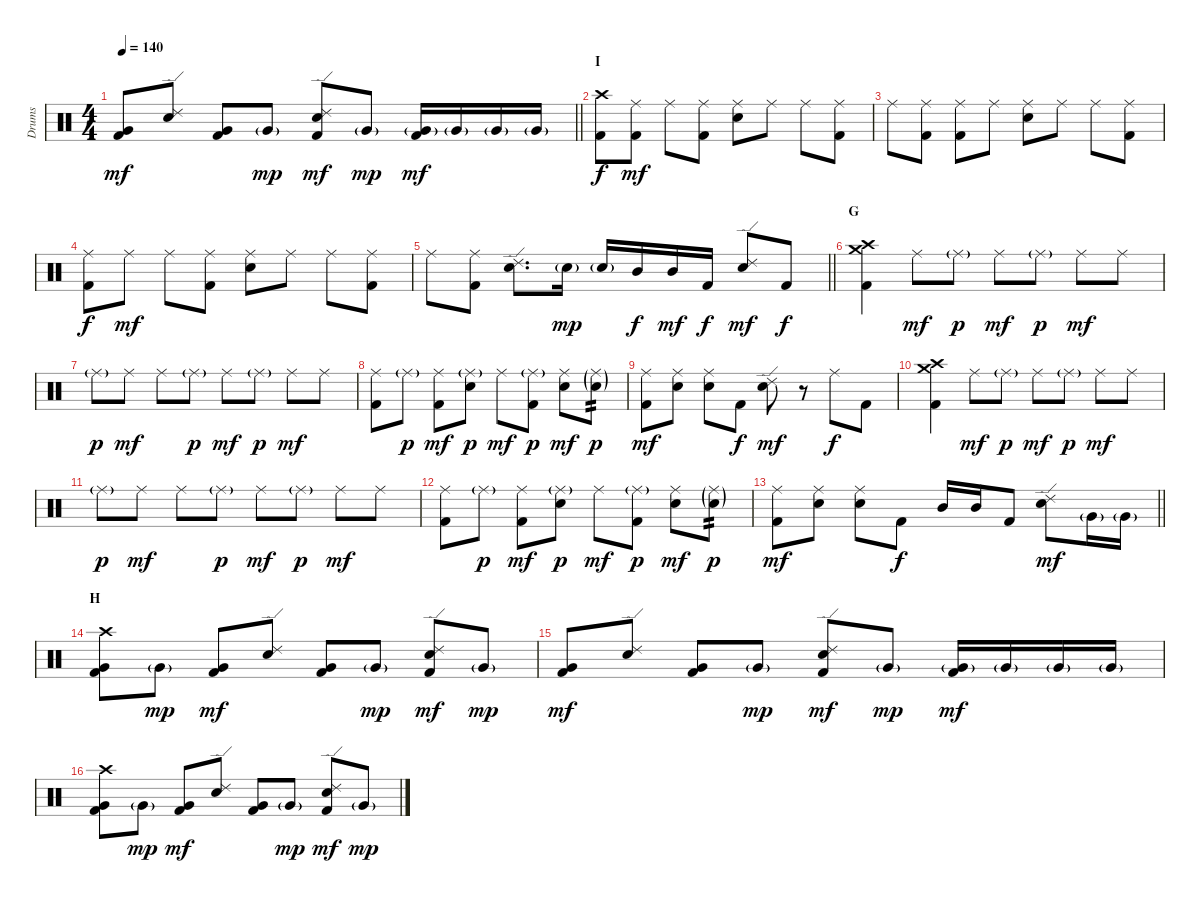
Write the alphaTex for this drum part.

\track ("Drums" "Drums") {instrument percussion}
\staff {score}
\articulation defaults
\ts (4 4)
\tempo 140
\clef neutral
\barLineRight lightlight
\ks c
("Very Low Tom (hit)" "Kick (hit) 2").8{dy mf} ("Ride (edge) 2" "Snare (hit) 2").8 ("Very Low Tom (hit)" "Kick (hit) 2").8 "Very Low Tom (hit)"{g}.8{dy mp} ("Ride (edge) 2" "Snare (hit) 2" "Kick (hit) 2").8{dy mf} "Very Low Tom (hit)"{g}.8{dy mp} ("Very Low Tom (hit)"{g} "Kick (hit) 2").16{dy mf} "Very Low Tom (hit)"{g}.16 "Very Low Tom (hit)"{g}.16 "Very Low Tom (hit)"{g}.16 |
\section ("" "I")
("Crash high (hit)" "Kick (hit) 2").8{dy f} ("Ride (middle)" "Kick (hit) 2").8{dy mf} "Ride (middle)".8 ("Ride (middle)" "Kick (hit) 2").8 ("Ride (middle)" "Snare (hit) 2").8 "Ride (middle)".8 "Ride (middle)".8 ("Ride (middle)" "Kick (hit) 2").8 |
"Ride (middle)".8 ("Ride (middle)" "Kick (hit) 2").8 ("Ride (middle)" "Kick (hit) 2").8 "Ride (middle)".8 ("Ride (middle)" "Snare (hit) 2").8 "Ride (middle)".8 "Ride (middle)".8 ("Ride (middle)" "Kick (hit) 2").8 |
("Ride (middle)" "Kick (hit) 2").8{dy f} "Ride (middle)".8{dy mf} "Ride (middle)".8 ("Ride (middle)" "Kick (hit) 2").8 ("Ride (middle)" "Snare (hit) 2").8 "Ride (middle)".8 "Ride (middle)".8 ("Ride (middle)" "Kick (hit) 2").8 |
\barLineRight lightlight "Ride (middle)".8
("Ride (middle)" "Kick (hit) 2").8 ("Ride (edge) 2" "Snare (hit) 2").8{d} "Snare (hit) 2"{g}.16{dy mp} "Snare (hit) 2"{g}.16 "Mid Tom (hit)".16{dy f} "Mid Tom (hit)".16{dy mf} "Kick (hit) 2".16{dy f} ("Ride (edge) 2" "Snare (hit) 2").8{dy mf} "Kick (hit) 2".8{dy f} |
\section ("" "G")
("Crash high (hit)" "Crash medium (hit)" "Kick (hit) 2").4 "Ride (middle)".8{dy mf} "Ride (middle)"{g}.8{dy p} "Ride (middle)".8{dy mf} "Ride (middle)"{g}.8{dy p} "Ride (middle)".8{dy mf} "Ride (middle)".8 |
"Ride (middle)"{g}.8{dy p} "Ride (middle)".8{dy mf} "Ride (middle)".8 "Ride (middle)"{g}.8{dy p} "Ride (middle)".8{dy mf} "Ride (middle)"{g}.8{dy p} "Ride (middle)".8{dy mf} "Ride (middle)".8 |
("Ride (middle)" "Kick (hit) 2").8 "Ride (middle)"{g}.8{dy p} ("Ride (middle)" "Kick (hit) 2").8{dy mf} ("Ride (middle)"{g} "Snare (hit) 2").8{dy p} "Ride (middle)".8{dy mf} ("Ride (middle)"{g} "Kick (hit) 2").8{dy p} ("Ride (middle)" "Snare (hit) 2").8{dy mf} ("Ride (middle)"{g} "Snare (hit) 2"{g}).8{tp 2 dy p} |
("Ride (middle)" "Kick (hit) 2").8{dy mf} ("Ride (middle)" "Snare (hit) 2").8 ("Ride (middle)" "Snare (hit) 2").8 "Kick (hit) 2".8{dy f} ("Ride (edge) 2" "Snare (hit) 2").8{dy mf} r.8 "Ride (middle)".8{dy f} "Kick (hit) 2".8 |
("Crash high (hit)" "Crash medium (hit)" "Kick (hit) 2").4 "Ride (middle)".8{dy mf} "Ride (middle)"{g}.8{dy p} "Ride (middle)".8{dy mf} "Ride (middle)"{g}.8{dy p} "Ride (middle)".8{dy mf} "Ride (middle)".8 |
"Ride (middle)"{g}.8{dy p} "Ride (middle)".8{dy mf} "Ride (middle)".8 "Ride (middle)"{g}.8{dy p} "Ride (middle)".8{dy mf} "Ride (middle)"{g}.8{dy p} "Ride (middle)".8{dy mf} "Ride (middle)".8 |
("Ride (middle)" "Kick (hit) 2").8 "Ride (middle)"{g}.8{dy p} ("Ride (middle)" "Kick (hit) 2").8{dy mf} ("Ride (middle)"{g} "Snare (hit) 2").8{dy p} "Ride (middle)".8{dy mf} ("Ride (middle)"{g} "Kick (hit) 2").8{dy p} ("Ride (middle)" "Snare (hit) 2").8{dy mf} ("Ride (middle)"{g} "Snare (hit) 2"{g}).8{tp 2 dy p} |
\barLineRight lightlight
("Ride (middle)" "Kick (hit) 2").8{dy mf} ("Ride (middle)" "Snare (hit) 2").8 ("Ride (middle)" "Snare (hit) 2").8 "Kick (hit) 2".8{dy f} "Mid Tom (hit)".16 "Mid Tom (hit)".16 "Kick (hit) 2".8 ("Ride (edge) 2" "Snare (hit) 2").8{dy mf} "Very Low Tom (hit)"{g}.16 "Very Low Tom (hit)"{g}.16 |
\section ("" "H")
("Crash high (hit)" "Very Low Tom (hit)" "Kick (hit) 2").8 "Very Low Tom (hit)"{g}.8{dy mp} ("Very Low Tom (hit)" "Kick (hit) 2").8{dy mf} ("Ride (edge) 2" "Snare (hit) 2").8 ("Very Low Tom (hit)" "Kick (hit) 2").8 "Very Low Tom (hit)"{g}.8{dy mp} ("Ride (edge) 2" "Snare (hit) 2" "Kick (hit) 2").8{dy mf} "Very Low Tom (hit)"{g}.8{dy mp} |
("Very Low Tom (hit)" "Kick (hit) 2").8{dy mf} ("Ride (edge) 2" "Snare (hit) 2").8 ("Very Low Tom (hit)" "Kick (hit) 2").8 "Very Low Tom (hit)"{g}.8{dy mp} ("Ride (edge) 2" "Snare (hit) 2" "Kick (hit) 2").8{dy mf} "Very Low Tom (hit)"{g}.8{dy mp} ("Very Low Tom (hit)"{g} "Kick (hit) 2").16{dy mf} "Very Low Tom (hit)"{g}.16 "Very Low Tom (hit)"{g}.16 "Very Low Tom (hit)"{g}.16 |
("Crash high (hit)" "Very Low Tom (hit)" "Kick (hit) 2").8 "Very Low Tom (hit)"{g}.8{dy mp} ("Very Low Tom (hit)" "Kick (hit) 2").8{dy mf} ("Ride (edge) 2" "Snare (hit) 2").8 ("Very Low Tom (hit)" "Kick (hit) 2").8 "Very Low Tom (hit)"{g}.8{dy mp} ("Ride (edge) 2" "Snare (hit) 2" "Kick (hit) 2").8{dy mf} "Very Low Tom (hit)"{g}.8{dy mp}
